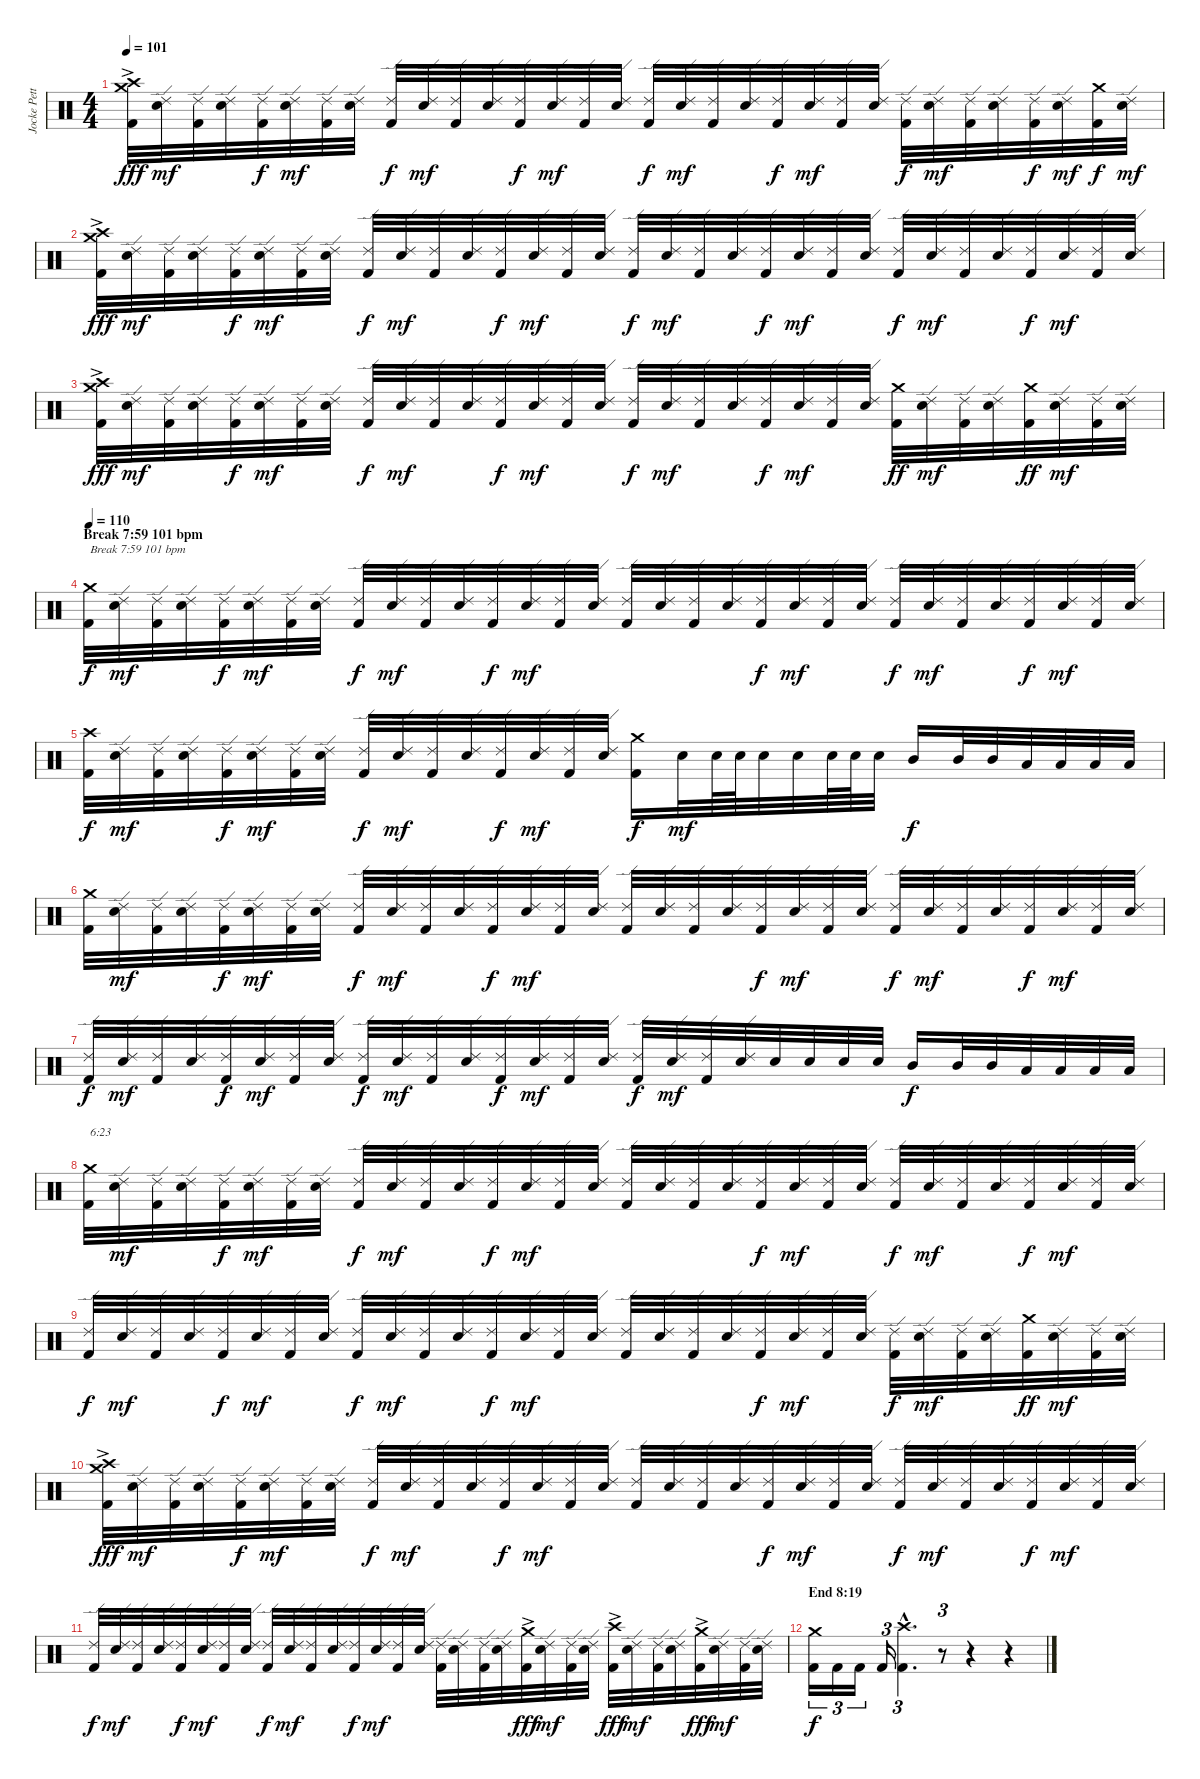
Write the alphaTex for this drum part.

\track ("Jocke Pettersson" "Jocke Pett") {instrument percussion}
\staff {score}
\articulation defaults
\ts (4 4)
\tempo 101
\clef neutral
\ks c
("Kick (hit) 2" "Crash high (hit)"{ac} "Crash medium (hit)"{ac}).32{dy fff} ("Electric Snare (hit)" "Ride (edge) 2").32{dy mf} ("Kick (hit) 2" "Ride (edge) 2").32 ("Electric Snare (hit)" "Ride (edge) 2").32 ("Kick (hit) 2" "Ride (edge) 2").32{dy f} ("Electric Snare (hit)" "Ride (edge) 2").32{dy mf} ("Kick (hit) 2" "Ride (edge) 2").32 ("Electric Snare (hit)" "Ride (edge) 2").32 ("Kick (hit) 2" "Ride (edge) 2").32{dy f} ("Electric Snare (hit)" "Ride (edge) 2").32{dy mf} ("Kick (hit) 2" "Ride (edge) 2").32 ("Electric Snare (hit)" "Ride (edge) 2").32 ("Kick (hit) 2" "Ride (edge) 2").32{dy f} ("Electric Snare (hit)" "Ride (edge) 2").32{dy mf} ("Kick (hit) 2" "Ride (edge) 2").32 ("Electric Snare (hit)" "Ride (edge) 2").32 ("Kick (hit) 2" "Ride (edge) 2").32{dy f} ("Electric Snare (hit)" "Ride (edge) 2").32{dy mf} ("Kick (hit) 2" "Ride (edge) 2").32 ("Electric Snare (hit)" "Ride (edge) 2").32 ("Kick (hit) 2" "Ride (edge) 2").32{dy f} ("Electric Snare (hit)" "Ride (edge) 2").32{dy mf} ("Kick (hit) 2" "Ride (edge) 2").32 ("Electric Snare (hit)" "Ride (edge) 2").32 ("Kick (hit) 2" "Ride (edge) 2").32{dy f} ("Electric Snare (hit)" "Ride (edge) 2").32{dy mf} ("Kick (hit) 2" "Ride (edge) 2").32 ("Electric Snare (hit)" "Ride (edge) 2").32 ("Kick (hit) 2" "Ride (edge) 2").32{dy f} ("Electric Snare (hit)" "Ride (edge) 2").32{dy mf} ("Kick (hit) 2" "Crash medium (hit)").32{dy f} ("Electric Snare (hit)" "Ride (edge) 2").32{dy mf} |
("Kick (hit) 2" "Crash high (hit)"{ac} "Crash medium (hit)"{ac}).32{dy fff} ("Electric Snare (hit)" "Ride (edge) 2").32{dy mf} ("Kick (hit) 2" "Ride (edge) 2").32 ("Electric Snare (hit)" "Ride (edge) 2").32 ("Kick (hit) 2" "Ride (edge) 2").32{dy f} ("Electric Snare (hit)" "Ride (edge) 2").32{dy mf} ("Kick (hit) 2" "Ride (edge) 2").32 ("Electric Snare (hit)" "Ride (edge) 2").32 ("Kick (hit) 2" "Ride (edge) 2").32{dy f} ("Electric Snare (hit)" "Ride (edge) 2").32{dy mf} ("Kick (hit) 2" "Ride (edge) 2").32 ("Electric Snare (hit)" "Ride (edge) 2").32 ("Kick (hit) 2" "Ride (edge) 2").32{dy f} ("Electric Snare (hit)" "Ride (edge) 2").32{dy mf} ("Kick (hit) 2" "Ride (edge) 2").32 ("Electric Snare (hit)" "Ride (edge) 2").32 ("Kick (hit) 2" "Ride (edge) 2").32{dy f} ("Electric Snare (hit)" "Ride (edge) 2").32{dy mf} ("Kick (hit) 2" "Ride (edge) 2").32 ("Electric Snare (hit)" "Ride (edge) 2").32 ("Kick (hit) 2" "Ride (edge) 2").32{dy f} ("Electric Snare (hit)" "Ride (edge) 2").32{dy mf} ("Kick (hit) 2" "Ride (edge) 2").32 ("Electric Snare (hit)" "Ride (edge) 2").32 ("Kick (hit) 2" "Ride (edge) 2").32{dy f} ("Electric Snare (hit)" "Ride (edge) 2").32{dy mf} ("Kick (hit) 2" "Ride (edge) 2").32 ("Electric Snare (hit)" "Ride (edge) 2").32 ("Kick (hit) 2" "Ride (edge) 2").32{dy f} ("Electric Snare (hit)" "Ride (edge) 2").32{dy mf} ("Kick (hit) 2" "Ride (edge) 2").32 ("Electric Snare (hit)" "Ride (edge) 2").32 |
("Kick (hit) 2" "Crash high (hit)"{ac} "Crash medium (hit)"{ac}).32{dy fff} ("Electric Snare (hit)" "Ride (edge) 2").32{dy mf} ("Kick (hit) 2" "Ride (edge) 2").32 ("Electric Snare (hit)" "Ride (edge) 2").32 ("Kick (hit) 2" "Ride (edge) 2").32{dy f} ("Electric Snare (hit)" "Ride (edge) 2").32{dy mf} ("Kick (hit) 2" "Ride (edge) 2").32 ("Electric Snare (hit)" "Ride (edge) 2").32 ("Kick (hit) 2" "Ride (edge) 2").32{dy f} ("Electric Snare (hit)" "Ride (edge) 2").32{dy mf} ("Kick (hit) 2" "Ride (edge) 2").32 ("Electric Snare (hit)" "Ride (edge) 2").32 ("Kick (hit) 2" "Ride (edge) 2").32{dy f} ("Electric Snare (hit)" "Ride (edge) 2").32{dy mf} ("Kick (hit) 2" "Ride (edge) 2").32 ("Electric Snare (hit)" "Ride (edge) 2").32 ("Kick (hit) 2" "Ride (edge) 2").32{dy f} ("Electric Snare (hit)" "Ride (edge) 2").32{dy mf} ("Kick (hit) 2" "Ride (edge) 2").32 ("Electric Snare (hit)" "Ride (edge) 2").32 ("Kick (hit) 2" "Ride (edge) 2").32{dy f} ("Electric Snare (hit)" "Ride (edge) 2").32{dy mf} ("Kick (hit) 2" "Ride (edge) 2").32 ("Electric Snare (hit)" "Ride (edge) 2").32 ("Kick (hit) 2" "Crash medium (hit)").32{dy ff} ("Electric Snare (hit)" "Ride (edge) 2").32{dy mf} ("Kick (hit) 2" "Ride (edge) 2").32 ("Electric Snare (hit)" "Ride (edge) 2").32 ("Kick (hit) 2" "Crash medium (hit)").32{dy ff} ("Electric Snare (hit)" "Ride (edge) 2").32{dy mf} ("Kick (hit) 2" "Ride (edge) 2").32 ("Electric Snare (hit)" "Ride (edge) 2").32 |
\section ("" "Break 7:59 101 bpm")
\tempo 110
("Kick (hit) 2" "Crash medium (hit)").32{txt "Break 7:59 101 bpm" dy f} ("Electric Snare (hit)" "Ride (edge) 2").32{dy mf} ("Kick (hit) 2" "Ride (edge) 2").32 ("Electric Snare (hit)" "Ride (edge) 2").32 ("Kick (hit) 2" "Ride (edge) 2").32{dy f} ("Electric Snare (hit)" "Ride (edge) 2").32{dy mf} ("Kick (hit) 2" "Ride (edge) 2").32 ("Electric Snare (hit)" "Ride (edge) 2").32 ("Kick (hit) 2" "Ride (edge) 2").32{dy f} ("Electric Snare (hit)" "Ride (edge) 2").32{dy mf} ("Kick (hit) 2" "Ride (edge) 2").32 ("Electric Snare (hit)" "Ride (edge) 2").32 ("Kick (hit) 2" "Ride (edge) 2").32{dy f} ("Electric Snare (hit)" "Ride (edge) 2").32{dy mf} ("Kick (hit) 2" "Ride (edge) 2").32 ("Electric Snare (hit)" "Ride (edge) 2").32 ("Kick (hit) 2" "Ride (edge) 2").32 ("Electric Snare (hit)" "Ride (edge) 2").32 ("Kick (hit) 2" "Ride (edge) 2").32 ("Electric Snare (hit)" "Ride (edge) 2").32 ("Kick (hit) 2" "Ride (edge) 2").32{dy f} ("Electric Snare (hit)" "Ride (edge) 2").32{dy mf} ("Kick (hit) 2" "Ride (edge) 2").32 ("Electric Snare (hit)" "Ride (edge) 2").32 ("Kick (hit) 2" "Ride (edge) 2").32{dy f} ("Electric Snare (hit)" "Ride (edge) 2").32{dy mf} ("Kick (hit) 2" "Ride (edge) 2").32 ("Electric Snare (hit)" "Ride (edge) 2").32 ("Kick (hit) 2" "Ride (edge) 2").32{dy f} ("Electric Snare (hit)" "Ride (edge) 2").32{dy mf} ("Kick (hit) 2" "Ride (edge) 2").32 ("Electric Snare (hit)" "Ride (edge) 2").32 |
("Kick (hit) 2" "Crash high (hit)").32{dy f} ("Electric Snare (hit)" "Ride (edge) 2").32{dy mf} ("Kick (hit) 2" "Ride (edge) 2").32 ("Electric Snare (hit)" "Ride (edge) 2").32 ("Kick (hit) 2" "Ride (edge) 2").32{dy f} ("Electric Snare (hit)" "Ride (edge) 2").32{dy mf} ("Kick (hit) 2" "Ride (edge) 2").32 ("Electric Snare (hit)" "Ride (edge) 2").32 ("Kick (hit) 2" "Ride (edge) 2").32{dy f} ("Electric Snare (hit)" "Ride (edge) 2").32{dy mf} ("Kick (hit) 2" "Ride (edge) 2").32 ("Electric Snare (hit)" "Ride (edge) 2").32 ("Kick (hit) 2" "Ride (edge) 2").32{dy f} ("Electric Snare (hit)" "Ride (edge) 2").32{dy mf} ("Kick (hit) 2" "Ride (edge) 2").32 ("Electric Snare (hit)" "Ride (edge) 2").32 ("Kick (hit) 2" "Crash medium (hit)").16{dy f} "Electric Snare (hit)".32{dy mf} "Electric Snare (hit)".64 "Electric Snare (hit)".64 "Electric Snare (hit)".32 "Electric Snare (hit)".32 "Electric Snare (hit)".64 "Electric Snare (hit)".64 "Electric Snare (hit)".32 "Mid Tom (hit)".16{dy f} "Mid Tom (hit)".32 "Mid Tom (hit)".32 "Low Tom (hit)".32 "Low Tom (hit)".32 "Low Tom (hit)".32 "Low Tom (hit)".32 |
("Kick (hit) 2" "Crash medium (hit)").32 ("Electric Snare (hit)" "Ride (edge) 2").32{dy mf} ("Kick (hit) 2" "Ride (edge) 2").32 ("Electric Snare (hit)" "Ride (edge) 2").32 ("Kick (hit) 2" "Ride (edge) 2").32{dy f} ("Electric Snare (hit)" "Ride (edge) 2").32{dy mf} ("Kick (hit) 2" "Ride (edge) 2").32 ("Electric Snare (hit)" "Ride (edge) 2").32 ("Kick (hit) 2" "Ride (edge) 2").32{dy f} ("Electric Snare (hit)" "Ride (edge) 2").32{dy mf} ("Kick (hit) 2" "Ride (edge) 2").32 ("Electric Snare (hit)" "Ride (edge) 2").32 ("Kick (hit) 2" "Ride (edge) 2").32{dy f} ("Electric Snare (hit)" "Ride (edge) 2").32{dy mf} ("Kick (hit) 2" "Ride (edge) 2").32 ("Electric Snare (hit)" "Ride (edge) 2").32 ("Kick (hit) 2" "Ride (edge) 2").32 ("Electric Snare (hit)" "Ride (edge) 2").32 ("Kick (hit) 2" "Ride (edge) 2").32 ("Electric Snare (hit)" "Ride (edge) 2").32 ("Kick (hit) 2" "Ride (edge) 2").32{dy f} ("Electric Snare (hit)" "Ride (edge) 2").32{dy mf} ("Kick (hit) 2" "Ride (edge) 2").32 ("Electric Snare (hit)" "Ride (edge) 2").32 ("Kick (hit) 2" "Ride (edge) 2").32{dy f} ("Electric Snare (hit)" "Ride (edge) 2").32{dy mf} ("Kick (hit) 2" "Ride (edge) 2").32 ("Electric Snare (hit)" "Ride (edge) 2").32 ("Kick (hit) 2" "Ride (edge) 2").32{dy f} ("Electric Snare (hit)" "Ride (edge) 2").32{dy mf} ("Kick (hit) 2" "Ride (edge) 2").32 ("Electric Snare (hit)" "Ride (edge) 2").32 |
("Kick (hit) 2" "Ride (edge) 2").32{dy f} ("Electric Snare (hit)" "Ride (edge) 2").32{dy mf} ("Kick (hit) 2" "Ride (edge) 2").32 ("Electric Snare (hit)" "Ride (edge) 2").32 ("Kick (hit) 2" "Ride (edge) 2").32{dy f} ("Electric Snare (hit)" "Ride (edge) 2").32{dy mf} ("Kick (hit) 2" "Ride (edge) 2").32 ("Electric Snare (hit)" "Ride (edge) 2").32 ("Kick (hit) 2" "Ride (edge) 2").32{dy f} ("Electric Snare (hit)" "Ride (edge) 2").32{dy mf} ("Kick (hit) 2" "Ride (edge) 2").32 ("Electric Snare (hit)" "Ride (edge) 2").32 ("Kick (hit) 2" "Ride (edge) 2").32{dy f} ("Electric Snare (hit)" "Ride (edge) 2").32{dy mf} ("Kick (hit) 2" "Ride (edge) 2").32 ("Electric Snare (hit)" "Ride (edge) 2").32 ("Kick (hit) 2" "Ride (edge) 2").32{dy f} ("Electric Snare (hit)" "Ride (edge) 2").32{dy mf} ("Kick (hit) 2" "Ride (edge) 2").32 ("Electric Snare (hit)" "Ride (edge) 2").32 "Electric Snare (hit)".32 "Electric Snare (hit)".32 "Electric Snare (hit)".32 "Electric Snare (hit)".32 "Mid Tom (hit)".16{dy f} "Mid Tom (hit)".32 "Mid Tom (hit)".32 "Low Tom (hit)".32 "Low Tom (hit)".32 "Low Tom (hit)".32 "Low Tom (hit)".32 |
("Kick (hit) 2" "Crash medium (hit)").32{txt "6:23"} ("Electric Snare (hit)" "Ride (edge) 2").32{dy mf} ("Kick (hit) 2" "Ride (edge) 2").32 ("Electric Snare (hit)" "Ride (edge) 2").32 ("Kick (hit) 2" "Ride (edge) 2").32{dy f} ("Electric Snare (hit)" "Ride (edge) 2").32{dy mf} ("Kick (hit) 2" "Ride (edge) 2").32 ("Electric Snare (hit)" "Ride (edge) 2").32 ("Kick (hit) 2" "Ride (edge) 2").32{dy f} ("Electric Snare (hit)" "Ride (edge) 2").32{dy mf} ("Kick (hit) 2" "Ride (edge) 2").32 ("Electric Snare (hit)" "Ride (edge) 2").32 ("Kick (hit) 2" "Ride (edge) 2").32{dy f} ("Electric Snare (hit)" "Ride (edge) 2").32{dy mf} ("Kick (hit) 2" "Ride (edge) 2").32 ("Electric Snare (hit)" "Ride (edge) 2").32 ("Kick (hit) 2" "Ride (edge) 2").32 ("Electric Snare (hit)" "Ride (edge) 2").32 ("Kick (hit) 2" "Ride (edge) 2").32 ("Electric Snare (hit)" "Ride (edge) 2").32 ("Kick (hit) 2" "Ride (edge) 2").32{dy f} ("Electric Snare (hit)" "Ride (edge) 2").32{dy mf} ("Kick (hit) 2" "Ride (edge) 2").32 ("Electric Snare (hit)" "Ride (edge) 2").32 ("Kick (hit) 2" "Ride (edge) 2").32{dy f} ("Electric Snare (hit)" "Ride (edge) 2").32{dy mf} ("Kick (hit) 2" "Ride (edge) 2").32 ("Electric Snare (hit)" "Ride (edge) 2").32 ("Kick (hit) 2" "Ride (edge) 2").32{dy f} ("Electric Snare (hit)" "Ride (edge) 2").32{dy mf} ("Kick (hit) 2" "Ride (edge) 2").32 ("Electric Snare (hit)" "Ride (edge) 2").32 |
("Kick (hit) 2" "Ride (edge) 2").32{dy f} ("Electric Snare (hit)" "Ride (edge) 2").32{dy mf} ("Kick (hit) 2" "Ride (edge) 2").32 ("Electric Snare (hit)" "Ride (edge) 2").32 ("Kick (hit) 2" "Ride (edge) 2").32{dy f} ("Electric Snare (hit)" "Ride (edge) 2").32{dy mf} ("Kick (hit) 2" "Ride (edge) 2").32 ("Electric Snare (hit)" "Ride (edge) 2").32 ("Kick (hit) 2" "Ride (edge) 2").32{dy f} ("Electric Snare (hit)" "Ride (edge) 2").32{dy mf} ("Kick (hit) 2" "Ride (edge) 2").32 ("Electric Snare (hit)" "Ride (edge) 2").32 ("Kick (hit) 2" "Ride (edge) 2").32{dy f} ("Electric Snare (hit)" "Ride (edge) 2").32{dy mf} ("Kick (hit) 2" "Ride (edge) 2").32 ("Electric Snare (hit)" "Ride (edge) 2").32 ("Kick (hit) 2" "Ride (edge) 2").32 ("Electric Snare (hit)" "Ride (edge) 2").32 ("Kick (hit) 2" "Ride (edge) 2").32 ("Electric Snare (hit)" "Ride (edge) 2").32 ("Kick (hit) 2" "Ride (edge) 2").32{dy f} ("Electric Snare (hit)" "Ride (edge) 2").32{dy mf} ("Kick (hit) 2" "Ride (edge) 2").32 ("Electric Snare (hit)" "Ride (edge) 2").32 ("Kick (hit) 2" "Ride (edge) 2").32{dy f} ("Electric Snare (hit)" "Ride (edge) 2").32{dy mf} ("Kick (hit) 2" "Ride (edge) 2").32 ("Electric Snare (hit)" "Ride (edge) 2").32 ("Kick (hit) 2" "Crash medium (hit)").32{dy ff} ("Electric Snare (hit)" "Ride (edge) 2").32{dy mf} ("Kick (hit) 2" "Ride (edge) 2").32 ("Electric Snare (hit)" "Ride (edge) 2").32 |
("Kick (hit) 2" "Crash medium (hit)"{ac} "Crash high (hit)").32{dy fff} ("Electric Snare (hit)" "Ride (edge) 2").32{dy mf} ("Kick (hit) 2" "Ride (edge) 2").32 ("Electric Snare (hit)" "Ride (edge) 2").32 ("Kick (hit) 2" "Ride (edge) 2").32{dy f} ("Electric Snare (hit)" "Ride (edge) 2").32{dy mf} ("Kick (hit) 2" "Ride (edge) 2").32 ("Electric Snare (hit)" "Ride (edge) 2").32 ("Kick (hit) 2" "Ride (edge) 2").32{dy f} ("Electric Snare (hit)" "Ride (edge) 2").32{dy mf} ("Kick (hit) 2" "Ride (edge) 2").32 ("Electric Snare (hit)" "Ride (edge) 2").32 ("Kick (hit) 2" "Ride (edge) 2").32{dy f} ("Electric Snare (hit)" "Ride (edge) 2").32{dy mf} ("Kick (hit) 2" "Ride (edge) 2").32 ("Electric Snare (hit)" "Ride (edge) 2").32 ("Kick (hit) 2" "Ride (edge) 2").32 ("Electric Snare (hit)" "Ride (edge) 2").32 ("Kick (hit) 2" "Ride (edge) 2").32 ("Electric Snare (hit)" "Ride (edge) 2").32 ("Kick (hit) 2" "Ride (edge) 2").32{dy f} ("Electric Snare (hit)" "Ride (edge) 2").32{dy mf} ("Kick (hit) 2" "Ride (edge) 2").32 ("Electric Snare (hit)" "Ride (edge) 2").32 ("Kick (hit) 2" "Ride (edge) 2").32{dy f} ("Electric Snare (hit)" "Ride (edge) 2").32{dy mf} ("Kick (hit) 2" "Ride (edge) 2").32 ("Electric Snare (hit)" "Ride (edge) 2").32 ("Kick (hit) 2" "Ride (edge) 2").32{dy f} ("Electric Snare (hit)" "Ride (edge) 2").32{dy mf} ("Kick (hit) 2" "Ride (edge) 2").32 ("Electric Snare (hit)" "Ride (edge) 2").32 |
("Kick (hit) 2" "Ride (edge) 2").32{dy f} ("Electric Snare (hit)" "Ride (edge) 2").32{dy mf} ("Kick (hit) 2" "Ride (edge) 2").32 ("Electric Snare (hit)" "Ride (edge) 2").32 ("Kick (hit) 2" "Ride (edge) 2").32{dy f} ("Electric Snare (hit)" "Ride (edge) 2").32{dy mf} ("Kick (hit) 2" "Ride (edge) 2").32 ("Electric Snare (hit)" "Ride (edge) 2").32 ("Kick (hit) 2" "Ride (edge) 2").32{dy f} ("Electric Snare (hit)" "Ride (edge) 2").32{dy mf} ("Kick (hit) 2" "Ride (edge) 2").32 ("Electric Snare (hit)" "Ride (edge) 2").32 ("Kick (hit) 2" "Ride (edge) 2").32{dy f} ("Electric Snare (hit)" "Ride (edge) 2").32{dy mf} ("Kick (hit) 2" "Ride (edge) 2").32 ("Electric Snare (hit)" "Ride (edge) 2").32 ("Kick (hit) 2" "Ride (edge) 2").32 ("Electric Snare (hit)" "Ride (edge) 2").32 ("Kick (hit) 2" "Ride (edge) 2").32 ("Electric Snare (hit)" "Ride (edge) 2").32 ("Kick (hit) 2" "Crash medium (hit)"{ac}).32{dy fff} ("Electric Snare (hit)" "Ride (edge) 2").32{dy mf} ("Kick (hit) 2" "Ride (edge) 2").32 ("Electric Snare (hit)" "Ride (edge) 2").32 ("Kick (hit) 2" "Crash high (hit)"{ac}).32{dy fff} ("Electric Snare (hit)" "Ride (edge) 2").32{dy mf} ("Kick (hit) 2" "Ride (edge) 2").32 ("Electric Snare (hit)" "Ride (edge) 2").32 ("Kick (hit) 2" "Crash medium (hit)"{ac}).32{dy fff} ("Electric Snare (hit)" "Ride (edge) 2").32{dy mf} ("Kick (hit) 2" "Ride (edge) 2").32 ("Electric Snare (hit)" "Ride (edge) 2").32 |
\section ("" "End 8:19")
("Kick (hit) 2" "Crash medium (hit)").16{tu (3 2) dy f} "Kick (hit) 2".16{tu (3 2)} "Kick (hit) 2".16{tu (3 2)} "Kick (hit) 2".16{tu (3 2)} ("Kick (hit) 2"{hac} "Crash high (hit)"{hac}).4{d tu (3 2)} r.8{tu (3 2)} r.4 r.4
